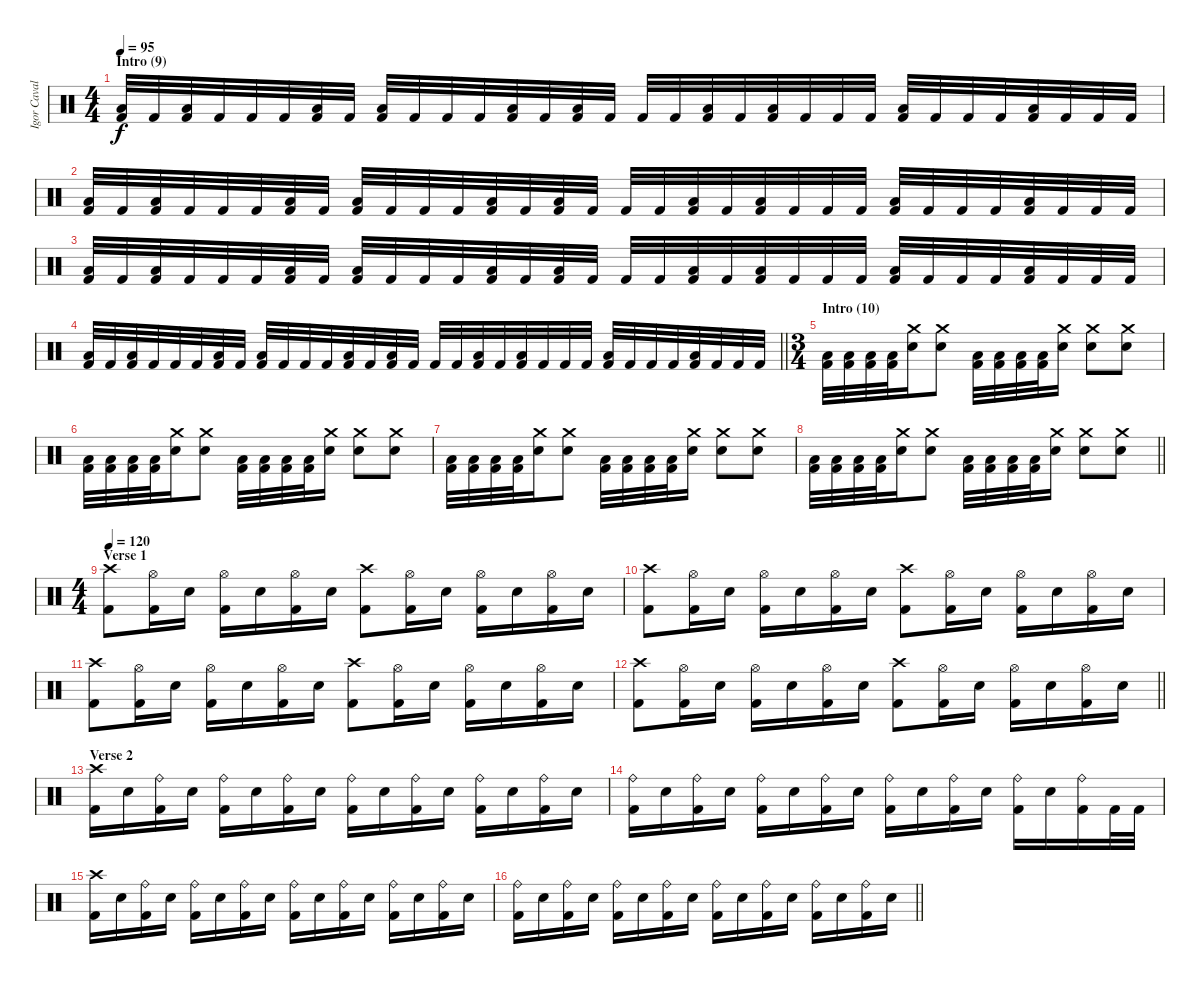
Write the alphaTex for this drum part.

\track ("Igor Cavalera" "Igor Caval") {instrument percussion}
\staff {score}
\articulation defaults
\ts (4 4)
\section ("" "Intro (9)")
\tempo 95
\clef neutral
\ks c
("Low Floor Tom (hit)" "Kick (hit) 2").32{dy f} "Kick (hit) 2".32 ("Low Floor Tom (hit)" "Kick (hit) 2").32 "Kick (hit) 2".32 "Kick (hit) 2".32 "Kick (hit) 2".32 ("Low Floor Tom (hit)" "Kick (hit) 2").32 "Kick (hit) 2".32 ("Low Floor Tom (hit)" "Kick (hit) 2").32 "Kick (hit) 2".32 "Kick (hit) 2".32 "Kick (hit) 2".32 ("Low Floor Tom (hit)" "Kick (hit) 2").32 "Kick (hit) 2".32 ("Low Floor Tom (hit)" "Kick (hit) 2").32 "Kick (hit) 2".32 "Kick (hit) 2".32 "Kick (hit) 2".32 ("Low Floor Tom (hit)" "Kick (hit) 2").32 "Kick (hit) 2".32 ("Low Floor Tom (hit)" "Kick (hit) 2").32 "Kick (hit) 2".32 "Kick (hit) 2".32 "Kick (hit) 2".32 ("Low Floor Tom (hit)" "Kick (hit) 2").32 "Kick (hit) 2".32 "Kick (hit) 2".32 "Kick (hit) 2".32 ("Low Floor Tom (hit)" "Kick (hit) 2").32 "Kick (hit) 2".32 "Kick (hit) 2".32 "Kick (hit) 2".32 |
("Low Floor Tom (hit)" "Kick (hit) 2").32 "Kick (hit) 2".32 ("Low Floor Tom (hit)" "Kick (hit) 2").32 "Kick (hit) 2".32 "Kick (hit) 2".32 "Kick (hit) 2".32 ("Low Floor Tom (hit)" "Kick (hit) 2").32 "Kick (hit) 2".32 ("Low Floor Tom (hit)" "Kick (hit) 2").32 "Kick (hit) 2".32 "Kick (hit) 2".32 "Kick (hit) 2".32 ("Low Floor Tom (hit)" "Kick (hit) 2").32 "Kick (hit) 2".32 ("Low Floor Tom (hit)" "Kick (hit) 2").32 "Kick (hit) 2".32 "Kick (hit) 2".32 "Kick (hit) 2".32 ("Low Floor Tom (hit)" "Kick (hit) 2").32 "Kick (hit) 2".32 ("Low Floor Tom (hit)" "Kick (hit) 2").32 "Kick (hit) 2".32 "Kick (hit) 2".32 "Kick (hit) 2".32 ("Low Floor Tom (hit)" "Kick (hit) 2").32 "Kick (hit) 2".32 "Kick (hit) 2".32 "Kick (hit) 2".32 ("Low Floor Tom (hit)" "Kick (hit) 2").32 "Kick (hit) 2".32 "Kick (hit) 2".32 "Kick (hit) 2".32 |
("Low Floor Tom (hit)" "Kick (hit) 2").32 "Kick (hit) 2".32 ("Low Floor Tom (hit)" "Kick (hit) 2").32 "Kick (hit) 2".32 "Kick (hit) 2".32 "Kick (hit) 2".32 ("Low Floor Tom (hit)" "Kick (hit) 2").32 "Kick (hit) 2".32 ("Low Floor Tom (hit)" "Kick (hit) 2").32 "Kick (hit) 2".32 "Kick (hit) 2".32 "Kick (hit) 2".32 ("Low Floor Tom (hit)" "Kick (hit) 2").32 "Kick (hit) 2".32 ("Low Floor Tom (hit)" "Kick (hit) 2").32 "Kick (hit) 2".32 "Kick (hit) 2".32 "Kick (hit) 2".32 ("Low Floor Tom (hit)" "Kick (hit) 2").32 "Kick (hit) 2".32 ("Low Floor Tom (hit)" "Kick (hit) 2").32 "Kick (hit) 2".32 "Kick (hit) 2".32 "Kick (hit) 2".32 ("Low Floor Tom (hit)" "Kick (hit) 2").32 "Kick (hit) 2".32 "Kick (hit) 2".32 "Kick (hit) 2".32 ("Low Floor Tom (hit)" "Kick (hit) 2").32 "Kick (hit) 2".32 "Kick (hit) 2".32 "Kick (hit) 2".32 |
\barLineRight lightlight
("Low Floor Tom (hit)" "Kick (hit) 2").32 "Kick (hit) 2".32 ("Low Floor Tom (hit)" "Kick (hit) 2").32 "Kick (hit) 2".32 "Kick (hit) 2".32 "Kick (hit) 2".32 ("Low Floor Tom (hit)" "Kick (hit) 2").32 "Kick (hit) 2".32 ("Low Floor Tom (hit)" "Kick (hit) 2").32 "Kick (hit) 2".32 "Kick (hit) 2".32 "Kick (hit) 2".32 ("Low Floor Tom (hit)" "Kick (hit) 2").32 "Kick (hit) 2".32 ("Low Floor Tom (hit)" "Kick (hit) 2").32 "Kick (hit) 2".32 "Kick (hit) 2".32 "Kick (hit) 2".32 ("Low Floor Tom (hit)" "Kick (hit) 2").32 "Kick (hit) 2".32 ("Low Floor Tom (hit)" "Kick (hit) 2").32 "Kick (hit) 2".32 "Kick (hit) 2".32 "Kick (hit) 2".32 ("Low Floor Tom (hit)" "Kick (hit) 2").32 "Kick (hit) 2".32 "Kick (hit) 2".32 "Kick (hit) 2".32 ("Low Floor Tom (hit)" "Kick (hit) 2").32 "Kick (hit) 2".32 "Kick (hit) 2".32 "Kick (hit) 2".32 |
\ts (3 4)
\section ("" "Intro (10)")
("Low Floor Tom (hit)" "Kick (hit) 2").32 ("Low Floor Tom (hit)" "Kick (hit) 2").32 ("Low Floor Tom (hit)" "Kick (hit) 2").32 ("Low Floor Tom (hit)" "Kick (hit) 2").32 ("Crash medium (hit)" "Electric Snare (hit)").16 ("Crash medium (hit)" "Electric Snare (hit)").8 ("Low Floor Tom (hit)" "Kick (hit) 2").32 ("Low Floor Tom (hit)" "Kick (hit) 2").32 ("Low Floor Tom (hit)" "Kick (hit) 2").32 ("Low Floor Tom (hit)" "Kick (hit) 2").32 ("Crash medium (hit)" "Electric Snare (hit)").16 ("Crash medium (hit)" "Electric Snare (hit)").8 ("Crash medium (hit)" "Electric Snare (hit)").8 |
("Low Floor Tom (hit)" "Kick (hit) 2").32 ("Low Floor Tom (hit)" "Kick (hit) 2").32 ("Low Floor Tom (hit)" "Kick (hit) 2").32 ("Low Floor Tom (hit)" "Kick (hit) 2").32 ("Crash medium (hit)" "Electric Snare (hit)").16 ("Crash medium (hit)" "Electric Snare (hit)").8 ("Low Floor Tom (hit)" "Kick (hit) 2").32 ("Low Floor Tom (hit)" "Kick (hit) 2").32 ("Low Floor Tom (hit)" "Kick (hit) 2").32 ("Low Floor Tom (hit)" "Kick (hit) 2").32 ("Crash medium (hit)" "Electric Snare (hit)").16 ("Crash medium (hit)" "Electric Snare (hit)").8 ("Crash medium (hit)" "Electric Snare (hit)").8 |
("Low Floor Tom (hit)" "Kick (hit) 2").32 ("Low Floor Tom (hit)" "Kick (hit) 2").32 ("Low Floor Tom (hit)" "Kick (hit) 2").32 ("Low Floor Tom (hit)" "Kick (hit) 2").32 ("Crash medium (hit)" "Electric Snare (hit)").16 ("Crash medium (hit)" "Electric Snare (hit)").8 ("Low Floor Tom (hit)" "Kick (hit) 2").32 ("Low Floor Tom (hit)" "Kick (hit) 2").32 ("Low Floor Tom (hit)" "Kick (hit) 2").32 ("Low Floor Tom (hit)" "Kick (hit) 2").32 ("Crash medium (hit)" "Electric Snare (hit)").16 ("Crash medium (hit)" "Electric Snare (hit)").8 ("Crash medium (hit)" "Electric Snare (hit)").8 |
\barLineRight lightlight
("Low Floor Tom (hit)" "Kick (hit) 2").32 ("Low Floor Tom (hit)" "Kick (hit) 2").32 ("Low Floor Tom (hit)" "Kick (hit) 2").32 ("Low Floor Tom (hit)" "Kick (hit) 2").32 ("Crash medium (hit)" "Electric Snare (hit)").16 ("Crash medium (hit)" "Electric Snare (hit)").8 ("Low Floor Tom (hit)" "Kick (hit) 2").32 ("Low Floor Tom (hit)" "Kick (hit) 2").32 ("Low Floor Tom (hit)" "Kick (hit) 2").32 ("Low Floor Tom (hit)" "Kick (hit) 2").32 ("Crash medium (hit)" "Electric Snare (hit)").16 ("Crash medium (hit)" "Electric Snare (hit)").8 ("Crash medium (hit)" "Electric Snare (hit)").8 |
\ts (4 4)
\section ("" "Verse 1")
\tempo 120
("Crash high (hit)" "Kick (hit) 2").8 ("Hi-Hat (open)" "Kick (hit) 2").16 "Electric Snare (hit)".16 ("Hi-Hat (open)" "Kick (hit) 2").16 "Electric Snare (hit)".16 ("Hi-Hat (open)" "Kick (hit) 2").16 "Electric Snare (hit)".16 ("Crash high (hit)" "Kick (hit) 2").8 ("Hi-Hat (open)" "Kick (hit) 2").16 "Electric Snare (hit)".16 ("Hi-Hat (open)" "Kick (hit) 2").16 "Electric Snare (hit)".16 ("Hi-Hat (open)" "Kick (hit) 2").16 "Electric Snare (hit)".16 |
("Crash high (hit)" "Kick (hit) 2").8 ("Hi-Hat (open)" "Kick (hit) 2").16 "Electric Snare (hit)".16 ("Hi-Hat (open)" "Kick (hit) 2").16 "Electric Snare (hit)".16 ("Hi-Hat (open)" "Kick (hit) 2").16 "Electric Snare (hit)".16 ("Crash high (hit)" "Kick (hit) 2").8 ("Hi-Hat (open)" "Kick (hit) 2").16 "Electric Snare (hit)".16 ("Hi-Hat (open)" "Kick (hit) 2").16 "Electric Snare (hit)".16 ("Hi-Hat (open)" "Kick (hit) 2").16 "Electric Snare (hit)".16 |
("Crash high (hit)" "Kick (hit) 2").8 ("Hi-Hat (open)" "Kick (hit) 2").16 "Electric Snare (hit)".16 ("Hi-Hat (open)" "Kick (hit) 2").16 "Electric Snare (hit)".16 ("Hi-Hat (open)" "Kick (hit) 2").16 "Electric Snare (hit)".16 ("Crash high (hit)" "Kick (hit) 2").8 ("Hi-Hat (open)" "Kick (hit) 2").16 "Electric Snare (hit)".16 ("Hi-Hat (open)" "Kick (hit) 2").16 "Electric Snare (hit)".16 ("Hi-Hat (open)" "Kick (hit) 2").16 "Electric Snare (hit)".16 |
\barLineRight lightlight
("Crash high (hit)" "Kick (hit) 2").8 ("Hi-Hat (open)" "Kick (hit) 2").16 "Electric Snare (hit)".16 ("Hi-Hat (open)" "Kick (hit) 2").16 "Electric Snare (hit)".16 ("Hi-Hat (open)" "Kick (hit) 2").16 "Electric Snare (hit)".16 ("Crash high (hit)" "Kick (hit) 2").8 ("Hi-Hat (open)" "Kick (hit) 2").16 "Electric Snare (hit)".16 ("Hi-Hat (open)" "Kick (hit) 2").16 "Electric Snare (hit)".16 ("Hi-Hat (open)" "Kick (hit) 2").16 "Electric Snare (hit)".16 |
\section ("" "Verse 2")
("Crash high (hit)" "Kick (hit) 2").16 "Electric Snare (hit)".16 ("Ride (bell)" "Kick (hit) 2").16 "Electric Snare (hit)".16 ("Ride (bell)" "Kick (hit) 2").16 "Electric Snare (hit)".16 ("Ride (bell)" "Kick (hit) 2").16 "Electric Snare (hit)".16 ("Ride (bell)" "Kick (hit) 2").16 "Electric Snare (hit)".16 ("Ride (bell)" "Kick (hit) 2").16 "Electric Snare (hit)".16 ("Ride (bell)" "Kick (hit) 2").16 "Electric Snare (hit)".16 ("Ride (bell)" "Kick (hit) 2").16 "Electric Snare (hit)".16 |
("Ride (bell)" "Kick (hit) 2").16 "Electric Snare (hit)".16 ("Ride (bell)" "Kick (hit) 2").16 "Electric Snare (hit)".16 ("Ride (bell)" "Kick (hit) 2").16 "Electric Snare (hit)".16 ("Ride (bell)" "Kick (hit) 2").16 "Electric Snare (hit)".16 ("Ride (bell)" "Kick (hit) 2").16 "Electric Snare (hit)".16 ("Ride (bell)" "Kick (hit) 2").16 "Electric Snare (hit)".16 ("Ride (bell)" "Kick (hit) 2").16 "Electric Snare (hit)".16 ("Ride (bell)" "Kick (hit) 2").16 "Kick (hit) 2".32 "Kick (hit) 2".32 |
("Crash high (hit)" "Kick (hit) 2").16 "Electric Snare (hit)".16 ("Ride (bell)" "Kick (hit) 2").16 "Electric Snare (hit)".16 ("Ride (bell)" "Kick (hit) 2").16 "Electric Snare (hit)".16 ("Ride (bell)" "Kick (hit) 2").16 "Electric Snare (hit)".16 ("Ride (bell)" "Kick (hit) 2").16 "Electric Snare (hit)".16 ("Ride (bell)" "Kick (hit) 2").16 "Electric Snare (hit)".16 ("Ride (bell)" "Kick (hit) 2").16 "Electric Snare (hit)".16 ("Ride (bell)" "Kick (hit) 2").16 "Electric Snare (hit)".16 |
\barLineRight lightlight
("Ride (bell)" "Kick (hit) 2").16 "Electric Snare (hit)".16 ("Ride (bell)" "Kick (hit) 2").16 "Electric Snare (hit)".16 ("Ride (bell)" "Kick (hit) 2").16 "Electric Snare (hit)".16 ("Ride (bell)" "Kick (hit) 2").16 "Electric Snare (hit)".16 ("Ride (bell)" "Kick (hit) 2").16 "Electric Snare (hit)".16 ("Ride (bell)" "Kick (hit) 2").16 "Electric Snare (hit)".16 ("Ride (bell)" "Kick (hit) 2").16 "Electric Snare (hit)".16 ("Ride (bell)" "Kick (hit) 2").16 "Electric Snare (hit)".16
